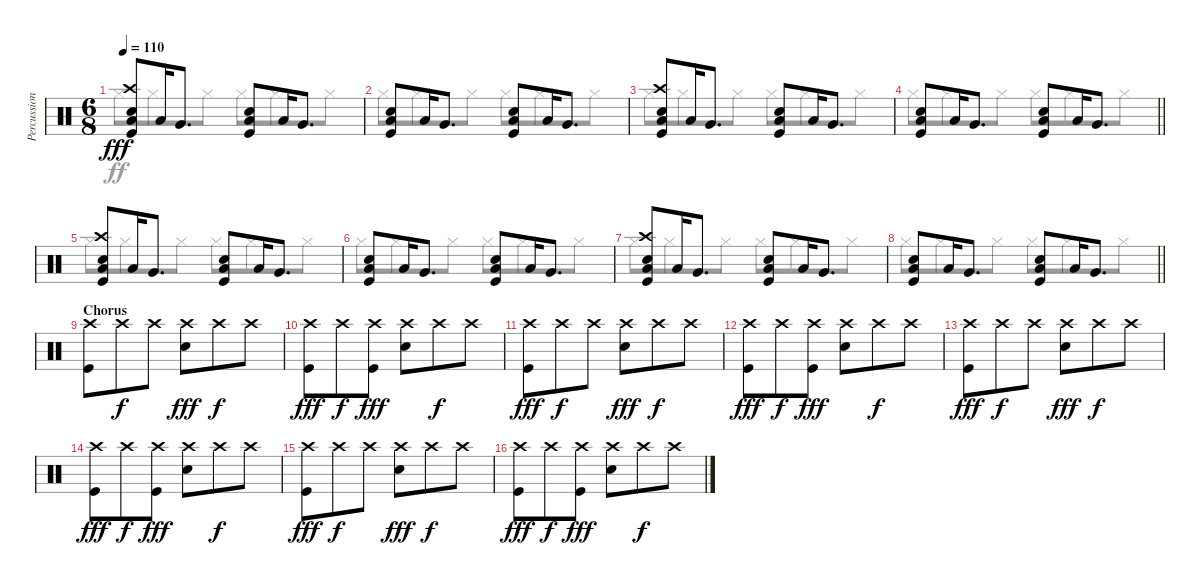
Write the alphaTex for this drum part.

\track ("Percussion" "Percussion") {instrument percussion}
\staff {score}
\articulation defaults
\voice
\ts (6 8)
\tempo 110
\clef neutral
\ks c
("Crash high (hit)" "Electric Snare (hit)" "Low Floor Tom (hit)" "Kick (hit)").8{dy fff} "Low Floor Tom (hit)".16 "Very Low Tom (hit)".8{d} ("Electric Snare (hit)" "Low Floor Tom (hit)" "Kick (hit)").8 "Low Floor Tom (hit)".16 "Very Low Tom (hit)".8{d} |
("Electric Snare (hit)" "Low Floor Tom (hit)" "Kick (hit)").8 "Low Floor Tom (hit)".16 "Very Low Tom (hit)".8{d} ("Electric Snare (hit)" "Low Floor Tom (hit)" "Kick (hit)").8 "Low Floor Tom (hit)".16 "Very Low Tom (hit)".8{d} |
("Crash high (hit)" "Electric Snare (hit)" "Low Floor Tom (hit)" "Kick (hit)").8 "Low Floor Tom (hit)".16 "Very Low Tom (hit)".8{d} ("Electric Snare (hit)" "Low Floor Tom (hit)" "Kick (hit)").8 "Low Floor Tom (hit)".16 "Very Low Tom (hit)".8{d} |
\barLineRight lightlight
("Electric Snare (hit)" "Low Floor Tom (hit)" "Kick (hit)").8 "Low Floor Tom (hit)".16 "Very Low Tom (hit)".8{d} ("Electric Snare (hit)" "Low Floor Tom (hit)" "Kick (hit)").8 "Low Floor Tom (hit)".16 "Very Low Tom (hit)".8{d} |
("Crash high (hit)" "Electric Snare (hit)" "Low Floor Tom (hit)" "Kick (hit)").8 "Low Floor Tom (hit)".16 "Very Low Tom (hit)".8{d} ("Electric Snare (hit)" "Low Floor Tom (hit)" "Kick (hit)").8 "Low Floor Tom (hit)".16 "Very Low Tom (hit)".8{d} |
("Electric Snare (hit)" "Low Floor Tom (hit)" "Kick (hit)").8 "Low Floor Tom (hit)".16 "Very Low Tom (hit)".8{d} ("Electric Snare (hit)" "Low Floor Tom (hit)" "Kick (hit)").8 "Low Floor Tom (hit)".16 "Very Low Tom (hit)".8{d} |
("Crash high (hit)" "Electric Snare (hit)" "Low Floor Tom (hit)" "Kick (hit)").8 "Low Floor Tom (hit)".16 "Very Low Tom (hit)".8{d} ("Electric Snare (hit)" "Low Floor Tom (hit)" "Kick (hit)").8 "Low Floor Tom (hit)".16 "Very Low Tom (hit)".8{d} |
\barLineRight lightlight
("Electric Snare (hit)" "Low Floor Tom (hit)" "Kick (hit)").8 "Low Floor Tom (hit)".16 "Very Low Tom (hit)".8{d} ("Electric Snare (hit)" "Low Floor Tom (hit)" "Kick (hit)").8 "Low Floor Tom (hit)".16 "Very Low Tom (hit)".8{d} |
\section ("" "Chorus")
("Crash high (hit)" "Kick (hit)").8 "Crash high (hit)".8{dy f} "Crash high (hit)".8 ("Crash high (hit)" "Electric Snare (hit)").8{dy fff} "Crash high (hit)".8{dy f} "Crash high (hit)".8 |
("Crash high (hit)" "Kick (hit)").8{dy fff} "Crash high (hit)".8{dy f} ("Crash high (hit)" "Kick (hit)").8{dy fff} ("Crash high (hit)" "Electric Snare (hit)").8 "Crash high (hit)".8{dy f} "Crash high (hit)".8 |
("Crash high (hit)" "Kick (hit)").8{dy fff} "Crash high (hit)".8{dy f} "Crash high (hit)".8 ("Crash high (hit)" "Electric Snare (hit)").8{dy fff} "Crash high (hit)".8{dy f} "Crash high (hit)".8 |
("Crash high (hit)" "Kick (hit)").8{dy fff} "Crash high (hit)".8{dy f} ("Crash high (hit)" "Kick (hit)").8{dy fff} ("Crash high (hit)" "Electric Snare (hit)").8 "Crash high (hit)".8{dy f} "Crash high (hit)".8 |
("Crash high (hit)" "Kick (hit)").8{dy fff} "Crash high (hit)".8{dy f} "Crash high (hit)".8 ("Crash high (hit)" "Electric Snare (hit)").8{dy fff} "Crash high (hit)".8{dy f} "Crash high (hit)".8 |
("Crash high (hit)" "Kick (hit)").8{dy fff} "Crash high (hit)".8{dy f} ("Crash high (hit)" "Kick (hit)").8{dy fff} ("Crash high (hit)" "Electric Snare (hit)").8 "Crash high (hit)".8{dy f} "Crash high (hit)".8 |
("Crash high (hit)" "Kick (hit)").8{dy fff} "Crash high (hit)".8{dy f} "Crash high (hit)".8 ("Crash high (hit)" "Electric Snare (hit)").8{dy fff} "Crash high (hit)".8{dy f} "Crash high (hit)".8 |
("Crash high (hit)" "Kick (hit)").8{dy fff} "Crash high (hit)".8{dy f} ("Crash high (hit)" "Kick (hit)").8{dy fff} ("Crash high (hit)" "Electric Snare (hit)").8 "Crash high (hit)".8{dy f} "Crash high (hit)".8
\voice
\clef neutral
\ottava regular
\simile none
\ks c "Hi-Hat (closed)".8{dy ff} "Hi-Hat (closed)".8 "Hi-Hat (closed)".8 "Hi-Hat (closed)".8 "Hi-Hat (closed)".8 "Hi-Hat (closed)".8
|
"Hi-Hat (closed)".8 "Hi-Hat (closed)".8 "Hi-Hat (closed)".8 "Hi-Hat (closed)".8 "Hi-Hat (closed)".8 "Hi-Hat (closed)".8 |
"Hi-Hat (closed)".8 "Hi-Hat (closed)".8 "Hi-Hat (closed)".8 "Hi-Hat (closed)".8 "Hi-Hat (closed)".8 "Hi-Hat (closed)".8 |
\barLineRight lightlight "Hi-Hat (closed)".8 "Hi-Hat (closed)".8 "Hi-Hat (closed)".8 "Hi-Hat (closed)".8 "Hi-Hat (closed)".8 "Hi-Hat (closed)".8
|
"Hi-Hat (closed)".8 "Hi-Hat (closed)".8 "Hi-Hat (closed)".8 "Hi-Hat (closed)".8 "Hi-Hat (closed)".8 "Hi-Hat (closed)".8 |
"Hi-Hat (closed)".8 "Hi-Hat (closed)".8 "Hi-Hat (closed)".8 "Hi-Hat (closed)".8 "Hi-Hat (closed)".8 "Hi-Hat (closed)".8 |
"Hi-Hat (closed)".8 "Hi-Hat (closed)".8 "Hi-Hat (closed)".8 "Hi-Hat (closed)".8 "Hi-Hat (closed)".8 "Hi-Hat (closed)".8 |
\barLineRight lightlight "Hi-Hat (closed)".8 "Hi-Hat (closed)".8 "Hi-Hat (closed)".8 "Hi-Hat (closed)".8 "Hi-Hat (closed)".8 "Hi-Hat (closed)".8
|
|
|
|
|
|
|
|
